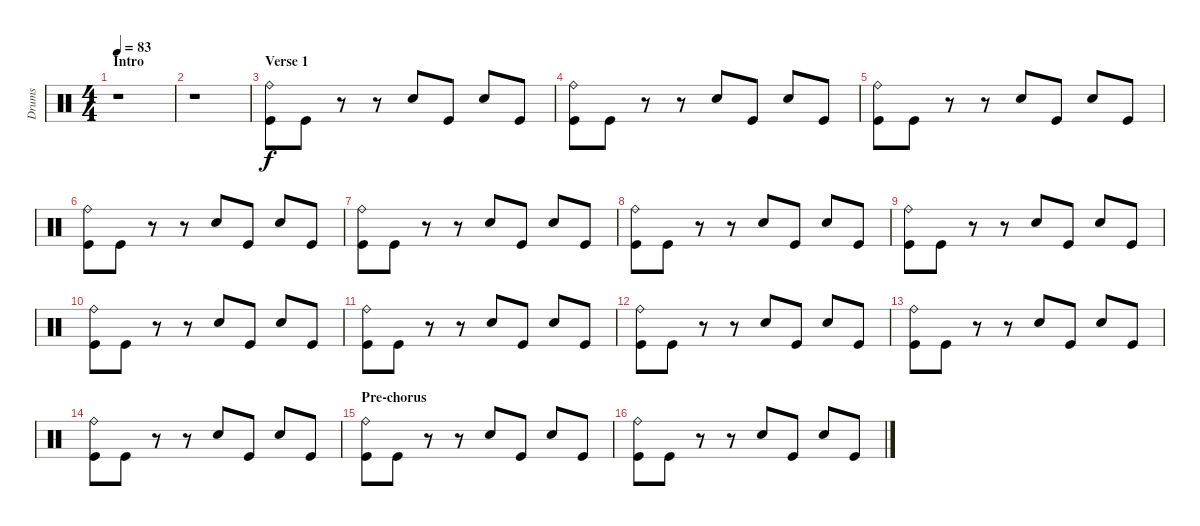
\track ("Drums" "Drums") {instrument percussion}
\staff {score}
\articulation defaults
\ts (4 4)
\section ("" "Intro")
\tempo 83
\clef neutral
\ks c
r.1{dy f} |
r.1 |
\section ("" "Verse 1 ")
("Ride (bell)" "Kick (hit)").8 "Kick (hit)".8 r.8 r.8 "Hand Clap (hit)".8 "Kick (hit)".8 "Hand Clap (hit)".8 "Kick (hit)".8 |
("Ride (bell)" "Kick (hit)").8 "Kick (hit)".8 r.8 r.8 "Hand Clap (hit)".8 "Kick (hit)".8 "Hand Clap (hit)".8 "Kick (hit)".8 |
("Ride (bell)" "Kick (hit)").8 "Kick (hit)".8 r.8 r.8 "Hand Clap (hit)".8 "Kick (hit)".8 "Hand Clap (hit)".8 "Kick (hit)".8 |
("Ride (bell)" "Kick (hit)").8 "Kick (hit)".8 r.8 r.8 "Hand Clap (hit)".8 "Kick (hit)".8 "Hand Clap (hit)".8 "Kick (hit)".8 |
("Ride (bell)" "Kick (hit)").8 "Kick (hit)".8 r.8 r.8 "Hand Clap (hit)".8 "Kick (hit)".8 "Hand Clap (hit)".8 "Kick (hit)".8 |
("Ride (bell)" "Kick (hit)").8 "Kick (hit)".8 r.8 r.8 "Hand Clap (hit)".8 "Kick (hit)".8 "Hand Clap (hit)".8 "Kick (hit)".8 |
("Ride (bell)" "Kick (hit)").8 "Kick (hit)".8 r.8 r.8 "Hand Clap (hit)".8 "Kick (hit)".8 "Hand Clap (hit)".8 "Kick (hit)".8 |
("Ride (bell)" "Kick (hit)").8 "Kick (hit)".8 r.8 r.8 "Hand Clap (hit)".8 "Kick (hit)".8 "Hand Clap (hit)".8 "Kick (hit)".8 |
("Ride (bell)" "Kick (hit)").8 "Kick (hit)".8 r.8 r.8 "Hand Clap (hit)".8 "Kick (hit)".8 "Hand Clap (hit)".8 "Kick (hit)".8 |
("Ride (bell)" "Kick (hit)").8 "Kick (hit)".8 r.8 r.8 "Hand Clap (hit)".8 "Kick (hit)".8 "Hand Clap (hit)".8 "Kick (hit)".8 |
("Ride (bell)" "Kick (hit)").8 "Kick (hit)".8 r.8 r.8 "Hand Clap (hit)".8 "Kick (hit)".8 "Hand Clap (hit)".8 "Kick (hit)".8 |
("Ride (bell)" "Kick (hit)").8 "Kick (hit)".8 r.8 r.8 "Hand Clap (hit)".8 "Kick (hit)".8 "Hand Clap (hit)".8 "Kick (hit)".8 |
\section ("" "Pre-chorus")
("Ride (bell)" "Kick (hit)").8 "Kick (hit)".8 r.8 r.8 "Hand Clap (hit)".8 "Kick (hit)".8 "Hand Clap (hit)".8 "Kick (hit)".8 |
("Ride (bell)" "Kick (hit)").8 "Kick (hit)".8 r.8 r.8 "Hand Clap (hit)".8 "Kick (hit)".8 "Hand Clap (hit)".8 "Kick (hit)".8
